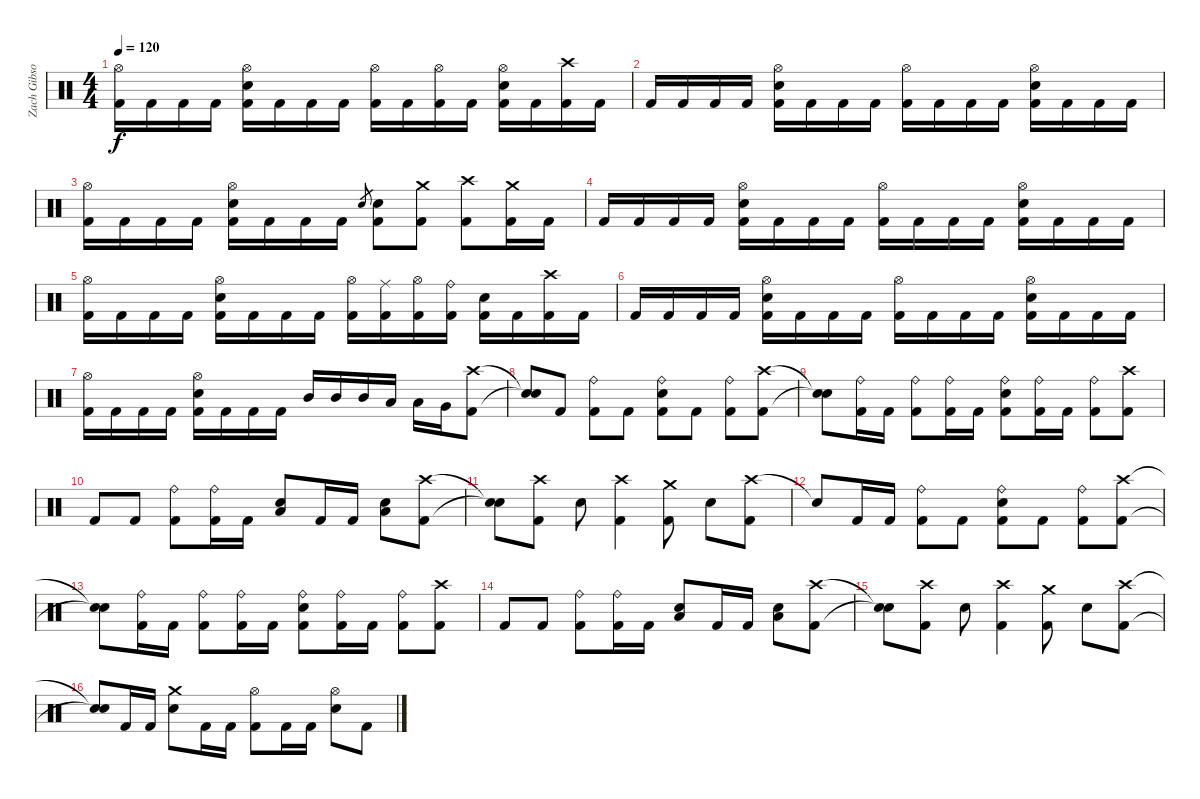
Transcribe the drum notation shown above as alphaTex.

\track ("Zach Gibson (Drums)" "Zach Gibso") {instrument percussion}
\staff {score}
\articulation defaults
\ts (4 4)
\tempo 120
\clef neutral
\ks c
("Hi-Hat (open)" "Kick (hit) 2").16{dy f} "Kick (hit) 2".16 "Kick (hit) 2".16 "Kick (hit) 2".16 ("Hi-Hat (open)" "Snare (hit) 2" "Kick (hit) 2").16 "Kick (hit) 2".16 "Kick (hit) 2".16 "Kick (hit) 2".16 ("Hi-Hat (open)" "Kick (hit) 2").16 "Kick (hit) 2".16 ("Hi-Hat (open)" "Kick (hit) 2").16 "Kick (hit) 2".16 ("Hi-Hat (open)" "Snare (hit) 2" "Kick (hit) 2").16 "Kick (hit) 2".16 ("Crash high (hit)" "Kick (hit) 2").16 "Kick (hit) 2".16 |
"Kick (hit) 2".16 "Kick (hit) 2".16 "Kick (hit) 2".16 "Kick (hit) 2".16 ("Hi-Hat (open)" "Snare (hit) 2" "Kick (hit) 2").16 "Kick (hit) 2".16 "Kick (hit) 2".16 "Kick (hit) 2".16 ("Hi-Hat (open)" "Kick (hit) 2").16 "Kick (hit) 2".16 "Kick (hit) 2".16 "Kick (hit) 2".16 ("Hi-Hat (open)" "Snare (hit) 2" "Kick (hit) 2").16 "Kick (hit) 2".16 "Kick (hit) 2".16 "Kick (hit) 2".16 |
("Hi-Hat (open)" "Kick (hit) 2").16 "Kick (hit) 2".16 "Kick (hit) 2".16 "Kick (hit) 2".16 ("Hi-Hat (open)" "Snare (hit) 2" "Kick (hit) 2").16 "Kick (hit) 2".16 "Kick (hit) 2".16 "Kick (hit) 2".16 "Snare (hit) 2".8{gr} ("Snare (hit) 2" "Kick (hit) 2").8 ("Crash medium (hit)" "Kick (hit) 2").8 ("Crash high (hit)" "Kick (hit) 2").8 ("Crash medium (hit)" "Kick (hit) 2").16 "Kick (hit) 2".16 |
"Kick (hit) 2".16 "Kick (hit) 2".16 "Kick (hit) 2".16 "Kick (hit) 2".16 ("Hi-Hat (open)" "Snare (hit) 2" "Kick (hit) 2").16 "Kick (hit) 2".16 "Kick (hit) 2".16 "Kick (hit) 2".16 ("Hi-Hat (open)" "Kick (hit) 2").16 "Kick (hit) 2".16 "Kick (hit) 2".16 "Kick (hit) 2".16 ("Hi-Hat (open)" "Snare (hit) 2" "Kick (hit) 2").16 "Kick (hit) 2".16 "Kick (hit) 2".16 "Kick (hit) 2".16 |
("Hi-Hat (open)" "Kick (hit) 2").16 "Kick (hit) 2".16 "Kick (hit) 2".16 "Kick (hit) 2".16 ("Hi-Hat (open)" "Snare (hit) 2" "Kick (hit) 2").16 "Kick (hit) 2".16 "Kick (hit) 2".16 "Kick (hit) 2".16 ("Hi-Hat (open)" "Kick (hit) 2").16 ("Ride (middle)" "Kick (hit) 2").16 ("Hi-Hat (open)" "Kick (hit) 2").16 ("Ride (bell)" "Kick (hit) 2").16 ("Snare (hit) 2" "Kick (hit) 2").16 "Kick (hit) 2".16 ("Crash high (hit)" "Kick (hit) 2").16 "Kick (hit) 2".16 |
"Kick (hit) 2".16 "Kick (hit) 2".16 "Kick (hit) 2".16 "Kick (hit) 2".16 ("Hi-Hat (open)" "Snare (hit) 2" "Kick (hit) 2").16 "Kick (hit) 2".16 "Kick (hit) 2".16 "Kick (hit) 2".16 ("Hi-Hat (open)" "Kick (hit) 2").16 "Kick (hit) 2".16 "Kick (hit) 2".16 "Kick (hit) 2".16 ("Hi-Hat (open)" "Snare (hit) 2" "Kick (hit) 2").16 "Kick (hit) 2".16 "Kick (hit) 2".16 "Kick (hit) 2".16 |
("Hi-Hat (open)" "Kick (hit) 2").16 "Kick (hit) 2".16 "Kick (hit) 2".16 "Kick (hit) 2".16 ("Hi-Hat (open)" "Snare (hit) 2" "Kick (hit) 2").16 "Kick (hit) 2".16 "Kick (hit) 2".16 "Kick (hit) 2".16 "Mid Tom (hit)".16 "Mid Tom (hit)".16 "Mid Tom (hit)".16 "Low Tom (hit)".16 "Low Tom (hit)".16 "Very Low Tom (hit)".16 ("Crash high (hit)" "Kick (hit) 2").8 |
("Snare (hit)"{t} "Snare (hit)"{t}).8 "Kick (hit) 2".8 ("Ride (bell)" "Kick (hit) 2").8 "Kick (hit) 2".8 ("Ride (bell)" "Snare (hit) 2" "Kick (hit) 2").8 "Kick (hit) 2".8 ("Ride (bell)" "Kick (hit) 2").8 ("Crash high (hit)" "Kick (hit) 2").8 |
("Snare (hit)"{t} "Snare (hit)"{t}).8 ("Ride (bell)" "Kick (hit) 2").16 "Kick (hit) 2".16 ("Ride (bell)" "Kick (hit) 2").8 ("Ride (bell)" "Kick (hit) 2").16 "Kick (hit) 2".16 ("Snare (hit) 2" "Ride (bell)" "Kick (hit) 2").8 ("Ride (bell)" "Kick (hit) 2").16 "Kick (hit) 2".16 ("Ride (bell)" "Kick (hit) 2").8 ("Crash high (hit)" "Kick (hit) 2").8 |
"Kick (hit) 2".8 "Kick (hit) 2".8 ("Ride (bell)" "Kick (hit) 2").8 ("Ride (bell)" "Kick (hit) 2").16 "Kick (hit) 2".16 ("Low Floor Tom (hit)" "Snare (hit) 2").8 "Kick (hit) 2".16 "Kick (hit) 2".16 ("Low Floor Tom (hit)" "Snare (hit) 2").8 ("Crash high (hit)" "Kick (hit) 2").8 |
("Snare (hit)"{t} "Snare (hit)"{t}).8 ("Crash high (hit)" "Kick (hit) 2").8 "Snare (hit) 2".8 ("Crash high (hit)" "Kick (hit) 2").4 ("Crash medium (hit)" "Kick (hit) 2").8 "Snare (hit) 2".8 ("Crash high (hit)" "Kick (hit) 2").8 |
"Snare (hit)"{t}.8 "Kick (hit) 2".16 "Kick (hit) 2".16 ("Ride (bell)" "Kick (hit) 2").8 "Kick (hit) 2".8 ("Ride (bell)" "Kick (hit) 2" "Snare (hit) 2").8 "Kick (hit) 2".8 ("Ride (bell)" "Kick (hit) 2").8 ("Crash high (hit)" "Kick (hit) 2").8 |
("Snare (hit)"{t} "Snare (hit)"{t}).8 ("Ride (bell)" "Kick (hit) 2").16 "Kick (hit) 2".16 ("Ride (bell)" "Kick (hit) 2").8 ("Ride (bell)" "Kick (hit) 2").16 "Kick (hit) 2".16 ("Snare (hit) 2" "Ride (bell)" "Kick (hit) 2").8 ("Ride (bell)" "Kick (hit) 2").16 "Kick (hit) 2".16 ("Ride (bell)" "Kick (hit) 2").8 ("Crash high (hit)" "Kick (hit) 2").8 |
"Kick (hit) 2".8 "Kick (hit) 2".8 ("Ride (bell)" "Kick (hit) 2").8 ("Ride (bell)" "Kick (hit) 2").16 "Kick (hit) 2".16 ("Low Floor Tom (hit)" "Snare (hit) 2").8 "Kick (hit) 2".16 "Kick (hit) 2".16 ("Low Floor Tom (hit)" "Snare (hit) 2").8 ("Crash high (hit)" "Kick (hit) 2").8 |
("Snare (hit)"{t} "Snare (hit)"{t}).8 ("Crash high (hit)" "Kick (hit) 2").8 "Snare (hit) 2".8 ("Crash high (hit)" "Kick (hit) 2").4 ("Crash medium (hit)" "Kick (hit) 2").8 "Snare (hit) 2".8 ("Crash high (hit)" "Kick (hit) 2").8 |
("Snare (hit)"{t} "Snare (hit)"{t}).8 "Kick (hit) 2".16 "Kick (hit) 2".16 ("Crash medium (hit)" "Snare (hit) 2").8 "Kick (hit) 2".16 "Kick (hit) 2".16 ("Kick (hit) 2" "Hi-Hat (open)").8 "Kick (hit) 2".16 "Kick (hit) 2".16 ("Hi-Hat (open)" "Snare (hit) 2").8 "Kick (hit) 2".8
